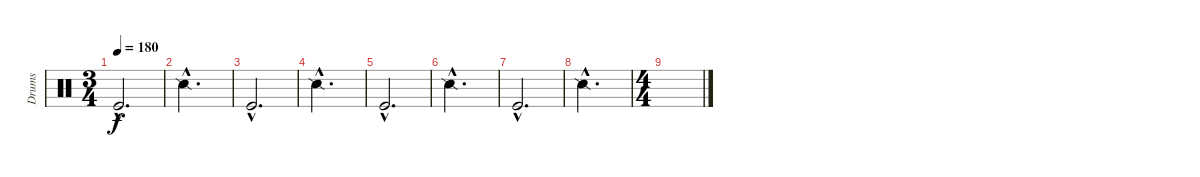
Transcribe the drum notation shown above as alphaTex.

\track ("Drums" "Drums") {instrument percussion}
\staff {score}
\articulation defaults
\ts (3 4)
\tempo 180
\clef neutral
\ks c "Kick (hit)"{hac}.2{d dy f}
|
"Snare (side stick) 2"{hac}.2{d} |
"Kick (hit)"{hac}.2{d} |
"Snare (side stick) 2"{hac}.2{d} |
"Kick (hit)"{hac}.2{d} |
"Snare (side stick) 2"{hac}.2{d} |
"Kick (hit)"{hac}.2{d} |
"Snare (side stick) 2"{hac}.2{d} |
\ts (4 4)
